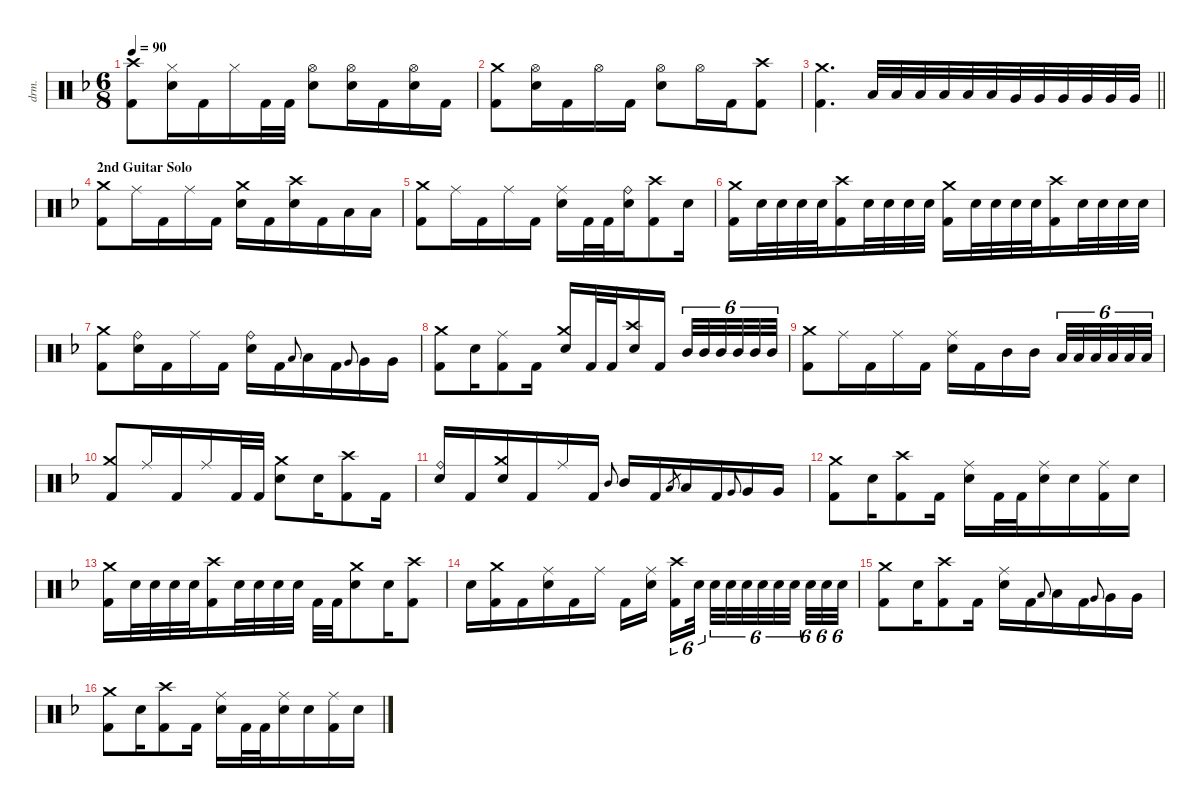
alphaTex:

\defaultSystemsLayout 4
\hideDynamics
\bracketExtendMode nobrackets
\otherSystemsTrackNameOrientation horizontal
\track ("Drums" "drm.") {instrument percussion}
\staff {score}
\articulation defaults
\ts (6 8)
\tempo 90
\clef neutral
\ks dminor
("Crash high (hit)"{acc forcenatural} "Kick (hit) 2"{acc forcenatural}).8{dy f beam Down} ("Hi-Hat (closed)"{acc forcenatural} "Snare (hit) 2"{acc forcenatural}).16{beam Down} "Kick (hit) 2"{acc forcenatural}.16{beam Down} "Hi-Hat (closed)"{acc forcenatural}.16{beam Down} "Kick (hit) 2"{acc forcenatural}.32{beam Down} "Kick (hit) 2"{acc forcenatural}.32{beam Down} ("Hi-Hat (open)"{acc forcenatural} "Snare (hit) 2"{acc forcenatural}).8{beam Down} ("Hi-Hat (open)"{acc forcenatural} "Snare (hit) 2"{acc forcenatural}).16{beam Down} "Kick (hit) 2"{acc forcenatural}.16{beam Down} ("Hi-Hat (open)"{acc forcenatural} "Snare (hit) 2"{acc forcenatural}).16{beam Down} "Kick (hit) 2"{acc forcenatural}.16{beam Down} |
("Crash medium (hit)"{acc forcenatural} "Kick (hit) 2"{acc forcenatural}).8{beam Down} ("Hi-Hat (open)"{acc forcenatural} "Snare (hit) 2"{acc forcenatural}).16{beam Down} "Kick (hit) 2"{acc forcenatural}.16{beam Down} "Hi-Hat (open)"{acc forcenatural}.16{beam Down} "Kick (hit) 2"{acc forcenatural}.16{beam Down} ("Hi-Hat (open)"{acc forcenatural} "Snare (hit) 2"{acc forcenatural}).8{beam Down} "Hi-Hat (open)"{acc forcenatural}.16{beam Down} "Kick (hit) 2"{acc forcenatural}.16{beam Down} ("Crash high (hit)"{acc forcenatural} "Kick (hit) 2"{acc forcenatural}).8{beam Down} |
\barLineRight lightlight
("Crash medium (hit)"{acc forcenatural} "Kick (hit) 2"{acc forcenatural}).4{d beam Down} "Low Tom (hit)"{acc forcenatural}.32{beam Up} "Low Tom (hit)"{acc forcenatural}.32{beam Up} "Low Tom (hit)"{acc forcenatural}.32{beam Up} "Low Tom (hit)"{acc forcenatural}.32{beam Up} "Low Tom (hit)"{acc forcenatural}.32{beam Up} "Low Tom (hit)"{acc forcenatural}.32{beam Up} "Very Low Tom (hit)"{acc forcenatural}.32{beam Up} "Very Low Tom (hit)"{acc forcenatural}.32{beam Up} "Very Low Tom (hit)"{acc forcenatural}.32{beam Up} "Very Low Tom (hit)"{acc forcenatural}.32{beam Up} "Very Low Tom (hit)"{acc forcenatural}.32{beam Up} "Very Low Tom (hit)"{acc forcenatural}.32{beam Up} |
\section ("" "2nd Guitar Solo")
("Crash medium (hit)"{acc forcenatural} "Kick (hit) 2"{acc forcenatural}).8{beam Down} "Ride (middle)"{acc forcenatural}.16{beam Down} "Kick (hit) 2"{acc forcenatural}.16{beam Down} "Ride (middle)"{acc forcenatural}.16{beam Down} "Kick (hit) 2"{acc forcenatural}.16{beam Down} ("Crash medium (hit)"{acc forcenatural} "Snare (hit) 2"{acc forcenatural}).16{beam Down} "Kick (hit) 2"{acc forcenatural}.16{beam Down} ("Crash high (hit)"{acc forcenatural} "Snare (hit) 2"{acc forcenatural}).16{beam Down} "Kick (hit) 2"{acc forcenatural}.16{beam Down} "Low Tom (hit)"{acc forcenatural}.16{beam Down} "Low Tom (hit)"{acc forcenatural}.16{beam Down} |
("Crash medium (hit)"{acc forcenatural} "Kick (hit) 2"{acc forcenatural}).8{beam Down} "Ride (middle)"{acc forcenatural}.16{beam Down} "Kick (hit) 2"{acc forcenatural}.16{beam Down} "Ride (middle)"{acc forcenatural}.16{beam Down} "Kick (hit) 2"{acc forcenatural}.16{beam Down} ("Ride (middle)"{acc forcenatural} "Snare (hit) 2"{acc forcenatural}).16{beam Down} "Kick (hit) 2"{acc forcenatural}.32{beam Down} "Kick (hit) 2"{acc forcenatural}.32{beam Down} ("Ride (bell)"{acc forcenatural} "Snare (hit) 2"{acc forcenatural}).16{beam Down} ("Crash high (hit)"{acc forcenatural} "Kick (hit) 2"{acc forcenatural}).8{beam Down} "Snare (hit) 2"{acc forcenatural}.16{beam Down} |
("Crash medium (hit)"{acc forcenatural} "Kick (hit) 2"{acc forcenatural}).16{beam Down} "Snare (hit) 2"{acc forcenatural}.32{beam Down} "Snare (hit) 2"{acc forcenatural}.32{beam Down} "Snare (hit) 2"{acc forcenatural}.32{beam Down} "Snare (hit) 2"{acc forcenatural}.32{beam Down} ("Crash high (hit)"{acc forcenatural} "Kick (hit) 2"{acc forcenatural}).16{beam Down} "Snare (hit) 2"{acc forcenatural}.32{beam Down} "Snare (hit) 2"{acc forcenatural}.32{beam Down} "Snare (hit) 2"{acc forcenatural}.32{beam Down} "Snare (hit) 2"{acc forcenatural}.32{beam Down} ("Crash medium (hit)"{acc forcenatural} "Kick (hit) 2"{acc forcenatural}).16{beam Down} "Snare (hit) 2"{acc forcenatural}.32{beam Down} "Snare (hit) 2"{acc forcenatural}.32{beam Down} "Snare (hit) 2"{acc forcenatural}.32{beam Down} "Snare (hit) 2"{acc forcenatural}.32{beam Down} ("Crash high (hit)"{acc forcenatural} "Kick (hit) 2"{acc forcenatural}).16{beam Down} "Snare (hit) 2"{acc forcenatural}.32{beam Down} "Snare (hit) 2"{acc forcenatural}.32{beam Down} "Snare (hit) 2"{acc forcenatural}.32{beam Down} "Snare (hit) 2"{acc forcenatural}.32{beam Down} |
("Crash medium (hit)"{acc forcenatural} "Kick (hit) 2"{acc forcenatural}).8{beam Down} ("Ride (bell)"{acc forcenatural} "Snare (hit) 2"{acc forcenatural}).16{beam Down} "Kick (hit) 2"{acc forcenatural}.16{beam Down} "Ride (middle)"{acc forcenatural}.16{beam Down} "Kick (hit) 2"{acc forcenatural}.16{beam Down} ("Ride (bell)"{acc forcenatural} "Snare (hit) 2"{acc forcenatural}).16{beam Down} "Kick (hit) 2"{acc forcenatural}.16{beam Down} "Low Tom (hit)"{acc forcenatural}.8{gr onbeat dy mf beam Up} "Low Tom (hit)"{acc forcenatural}.16{dy f beam Down} "Kick (hit) 2"{acc forcenatural}.16{beam Down} "Very Low Tom (hit)"{acc forcenatural}.8{gr onbeat dy mf beam Up} "Very Low Tom (hit)"{acc forcenatural}.16{dy f beam Down} "Very Low Tom (hit)"{acc forcenatural}.16{beam Down} |
("Crash medium (hit)"{acc forcenatural} "Kick (hit) 2"{acc forcenatural}).8{beam Down} "Snare (hit) 2"{acc forcenatural}.16{beam Down} ("Ride (middle)"{acc forcenatural} "Kick (hit) 2"{acc forcenatural}).8{beam Down} "Kick (hit) 2"{acc forcenatural}.16{beam Down} ("Crash medium (hit)"{acc forcenatural} "Snare (hit) 2"{acc forcenatural}).16{beam Up} "Kick (hit) 2"{acc forcenatural}.32{beam Up} "Kick (hit) 2"{acc forcenatural}.32{beam Up} ("Crash high (hit)"{acc forcenatural} "Snare (hit) 2"{acc forcenatural}).16{beam Up} "Kick (hit) 2"{acc forcenatural}.16{beam Up} "Mid Tom (hit)"{acc forcenatural}.32{tu (6 4) beam Up} "Mid Tom (hit)"{acc forcenatural}.32{tu (6 4) beam Up} "Mid Tom (hit)"{acc forcenatural}.32{tu (6 4) beam Up} "Mid Tom (hit)"{acc forcenatural}.32{tu (6 4) beam Up} "Mid Tom (hit)"{acc forcenatural}.32{tu (6 4) beam Up} "Mid Tom (hit)"{acc forcenatural}.32{tu (6 4) beam Up} |
("Crash medium (hit)"{acc forcenatural} "Kick (hit) 2"{acc forcenatural}).8{beam Down} "Ride (middle)"{acc forcenatural}.16{beam Down} "Kick (hit) 2"{acc forcenatural}.16{beam Down} "Ride (middle)"{acc forcenatural}.16{beam Down} "Kick (hit) 2"{acc forcenatural}.16{beam Down} ("Ride (middle)"{acc forcenatural} "Snare (hit) 2"{acc forcenatural}).16{beam Down} "Kick (hit) 2"{acc forcenatural}.16{beam Down} "Mid Tom (hit)"{acc forcenatural}.16{beam Down} "Mid Tom (hit)"{acc forcenatural}.16{beam Down} "Low Tom (hit)"{acc forcenatural}.32{tu (6 4) beam Up} "Low Tom (hit)"{acc forcenatural}.32{tu (6 4) beam Up} "Low Tom (hit)"{acc forcenatural}.32{tu (6 4) beam Up} "Low Tom (hit)"{acc forcenatural}.32{tu (6 4) beam Up} "Low Tom (hit)"{acc forcenatural}.32{tu (6 4) beam Up} "Low Tom (hit)"{acc forcenatural}.32{tu (6 4) beam Up} |
("Crash medium (hit)"{acc forcenatural} "Kick (hit) 2"{acc forcenatural}).8{beam Up} "Ride (middle)"{acc forcenatural}.16{beam Up} "Kick (hit) 2"{acc forcenatural}.16{beam Up} "Ride (middle)"{acc forcenatural}.16{beam Up} "Kick (hit) 2"{acc forcenatural}.32{beam Up} "Kick (hit) 2"{acc forcenatural}.32{beam Up} ("Crash medium (hit)"{acc forcenatural} "Snare (hit) 2"{acc forcenatural}).8{beam Down} "Snare (hit) 2"{acc forcenatural}.16{beam Down} ("Crash high (hit)"{acc forcenatural} "Kick (hit) 2"{acc forcenatural}).8{beam Down} "Kick (hit) 2"{acc forcenatural}.16{beam Down} |
("Ride (bell)"{acc forcenatural} "Snare (hit) 2"{acc forcenatural}).16{beam Up} "Kick (hit) 2"{acc forcenatural}.16{beam Up} ("Crash medium (hit)"{acc forcenatural} "Snare (hit) 2"{acc forcenatural}).16{beam Up} "Kick (hit) 2"{acc forcenatural}.16{beam Up} "Ride (middle)"{acc forcenatural}.16{beam Up} "Kick (hit) 2"{acc forcenatural}.16{beam Up} "Mid Tom (hit)"{acc forcenatural}.8{gr onbeat dy mf beam Up} "Mid Tom (hit)"{acc forcenatural}.16{dy f beam Up} "Kick (hit) 2"{acc forcenatural}.16{beam Up} "Low Tom (hit)"{acc forcenatural}.8{gr dy mf beam Up} "Low Tom (hit)"{acc forcenatural}.16{dy f beam Up} "Kick (hit) 2"{acc forcenatural}.16{beam Up} "Very Low Tom (hit)"{acc forcenatural}.8{gr onbeat dy mf beam Up} "Very Low Tom (hit)"{acc forcenatural}.16{dy f beam Up} "Very Low Tom (hit)"{acc forcenatural}.16{beam Up} |
("Crash medium (hit)"{acc forcenatural} "Kick (hit) 2"{acc forcenatural}).8{beam Down} "Snare (hit) 2"{acc forcenatural}.16{beam Down} ("Crash high (hit)"{acc forcenatural} "Kick (hit) 2"{acc forcenatural}).8{beam Down} "Kick (hit) 2"{acc forcenatural}.16{beam Down} ("Ride (middle)"{acc forcenatural} "Snare (hit) 2"{acc forcenatural}).16{beam Down} "Kick (hit) 2"{acc forcenatural}.32{beam Down} "Kick (hit) 2"{acc forcenatural}.32{beam Down} ("Ride (middle)"{acc forcenatural} "Snare (hit) 2"{acc forcenatural}).16{beam Down} "Snare (hit) 2"{acc forcenatural}.16{beam Down} ("Ride (middle)"{acc forcenatural} "Kick (hit) 2"{acc forcenatural}).16{beam Down} "Snare (hit) 2"{acc forcenatural}.16{beam Down} |
("Crash medium (hit)"{acc forcenatural} "Kick (hit) 2"{acc forcenatural}).16{beam Down} "Snare (hit) 2"{acc forcenatural}.32{beam Down} "Snare (hit) 2"{acc forcenatural}.32{beam Down} "Snare (hit) 2"{acc forcenatural}.32{beam Down} "Snare (hit) 2"{acc forcenatural}.32{beam Down} ("Crash high (hit)"{acc forcenatural} "Kick (hit) 2"{acc forcenatural}).16{beam Down} "Snare (hit) 2"{acc forcenatural}.32{beam Down} "Snare (hit) 2"{acc forcenatural}.32{beam Down} "Snare (hit) 2"{acc forcenatural}.32{beam Down} "Snare (hit) 2"{acc forcenatural}.32{beam Down} "Kick (hit) 2"{acc forcenatural}.32{beam Down} "Kick (hit) 2"{acc forcenatural}.32{beam Down} ("Crash medium (hit)"{acc forcenatural} "Snare (hit) 2"{acc forcenatural}).8{beam Down} "Snare (hit) 2"{acc forcenatural}.16{beam Down} ("Crash high (hit)"{acc forcenatural} "Kick (hit) 2"{acc forcenatural}).8{beam Down} |
"Snare (hit) 2"{acc forcenatural}.16{beam Down} ("Crash medium (hit)"{acc forcenatural} "Kick (hit) 2"{acc forcenatural}).16{beam Down} "Kick (hit) 2"{acc forcenatural}.16{beam Down} ("Ride (middle)"{acc forcenatural} "Snare (hit) 2"{acc forcenatural}).16{beam Down} "Kick (hit) 2"{acc forcenatural}.16{beam Down} "Ride (middle)"{acc forcenatural}.16{beam Down} "Kick (hit) 2"{acc forcenatural}.16{beam Down} ("Ride (middle)"{acc forcenatural} "Snare (hit) 2"{acc forcenatural}).16{beam Down} ("Crash high (hit)"{acc forcenatural} "Kick (hit) 2"{acc forcenatural}).16{tu (6 4) beam Down} "Snare (hit) 2"{acc forcenatural}.32{tu (6 4) beam Down} "Snare (hit) 2"{acc forcenatural}.32{tu (6 4) beam Down} "Snare (hit) 2"{acc forcenatural}.32{tu (6 4) beam Down} "Snare (hit) 2"{acc forcenatural}.32{tu (6 4) beam Down} "Snare (hit) 2"{acc forcenatural}.32{tu (6 4) beam Down} "Snare (hit) 2"{acc forcenatural}.32{tu (6 4) beam Down} "Snare (hit) 2"{acc forcenatural}.32{tu (6 4) beam Down} "Snare (hit) 2"{acc forcenatural}.32{tu (6 4) beam Down} "Snare (hit) 2"{acc forcenatural}.32{tu (6 4) beam Down} "Snare (hit) 2"{acc forcenatural}.32{tu (6 4) beam Down} |
("Crash medium (hit)"{acc forcenatural} "Kick (hit) 2"{acc forcenatural}).8{beam Down} "Snare (hit) 2"{acc forcenatural}.16{beam Down} ("Crash high (hit)"{acc forcenatural} "Kick (hit) 2"{acc forcenatural}).8{beam Down} "Kick (hit) 2"{acc forcenatural}.16{beam Down} ("Ride (middle)"{acc forcenatural} "Snare (hit) 2"{acc forcenatural}).16{beam Down} "Kick (hit) 2"{acc forcenatural}.16{beam Down} "Low Tom (hit)"{acc forcenatural}.8{gr onbeat dy mf beam Up} "Low Tom (hit)"{acc forcenatural}.16{dy f beam Down} "Kick (hit) 2"{acc forcenatural}.16{beam Down} "Very Low Tom (hit)"{acc forcenatural}.8{gr onbeat dy mf beam Up} "Very Low Tom (hit)"{acc forcenatural}.16{dy f beam Down} "Very Low Tom (hit)"{acc forcenatural}.16{beam Down} |
("Crash medium (hit)"{acc forcenatural} "Kick (hit) 2"{acc forcenatural}).8{beam Down} "Snare (hit) 2"{acc forcenatural}.16{beam Down} ("Crash high (hit)"{acc forcenatural} "Kick (hit) 2"{acc forcenatural}).8{beam Down} "Kick (hit) 2"{acc forcenatural}.16{beam Down} ("Ride (middle)"{acc forcenatural} "Snare (hit) 2"{acc forcenatural}).16{beam Down} "Kick (hit) 2"{acc forcenatural}.32{beam Down} "Kick (hit) 2"{acc forcenatural}.32{beam Down} ("Ride (middle)"{acc forcenatural} "Snare (hit) 2"{acc forcenatural}).16{beam Down} "Snare (hit) 2"{acc forcenatural}.16{beam Down} ("Ride (middle)"{acc forcenatural} "Kick (hit) 2"{acc forcenatural}).16{beam Down} "Snare (hit) 2"{acc forcenatural}.16{beam Down}
